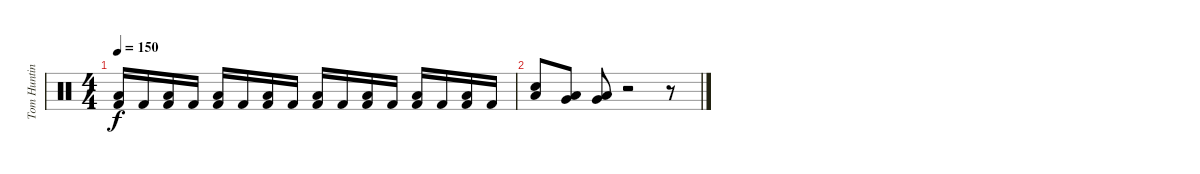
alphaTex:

\track ("Tom Hunting" "Tom Huntin") {instrument percussion}
\staff {score}
\articulation defaults
\ts (4 4)
\tempo 150
\clef neutral
\ks c
("Low Floor Tom (hit)" "Kick (hit) 2").16{dy f} "Kick (hit) 2".16 ("Low Floor Tom (hit)" "Kick (hit) 2").16 "Kick (hit) 2".16 ("Low Floor Tom (hit)" "Kick (hit) 2").16 "Kick (hit) 2".16 ("Low Floor Tom (hit)" "Kick (hit) 2").16 "Kick (hit) 2".16 ("Low Floor Tom (hit)" "Kick (hit) 2").16 "Kick (hit) 2".16 ("Low Floor Tom (hit)" "Kick (hit) 2").16 "Kick (hit) 2".16 ("Low Floor Tom (hit)" "Kick (hit) 2").16 "Kick (hit) 2".16 ("Low Floor Tom (hit)" "Kick (hit) 2").16 "Kick (hit) 2".16 |
("Low Floor Tom (hit)" "Snare (hit) 2").8 ("Low Tom (hit)" "Very Low Tom (hit)").8 ("Very Low Tom (hit)" "Low Floor Tom (hit)").8 r.2 r.8
